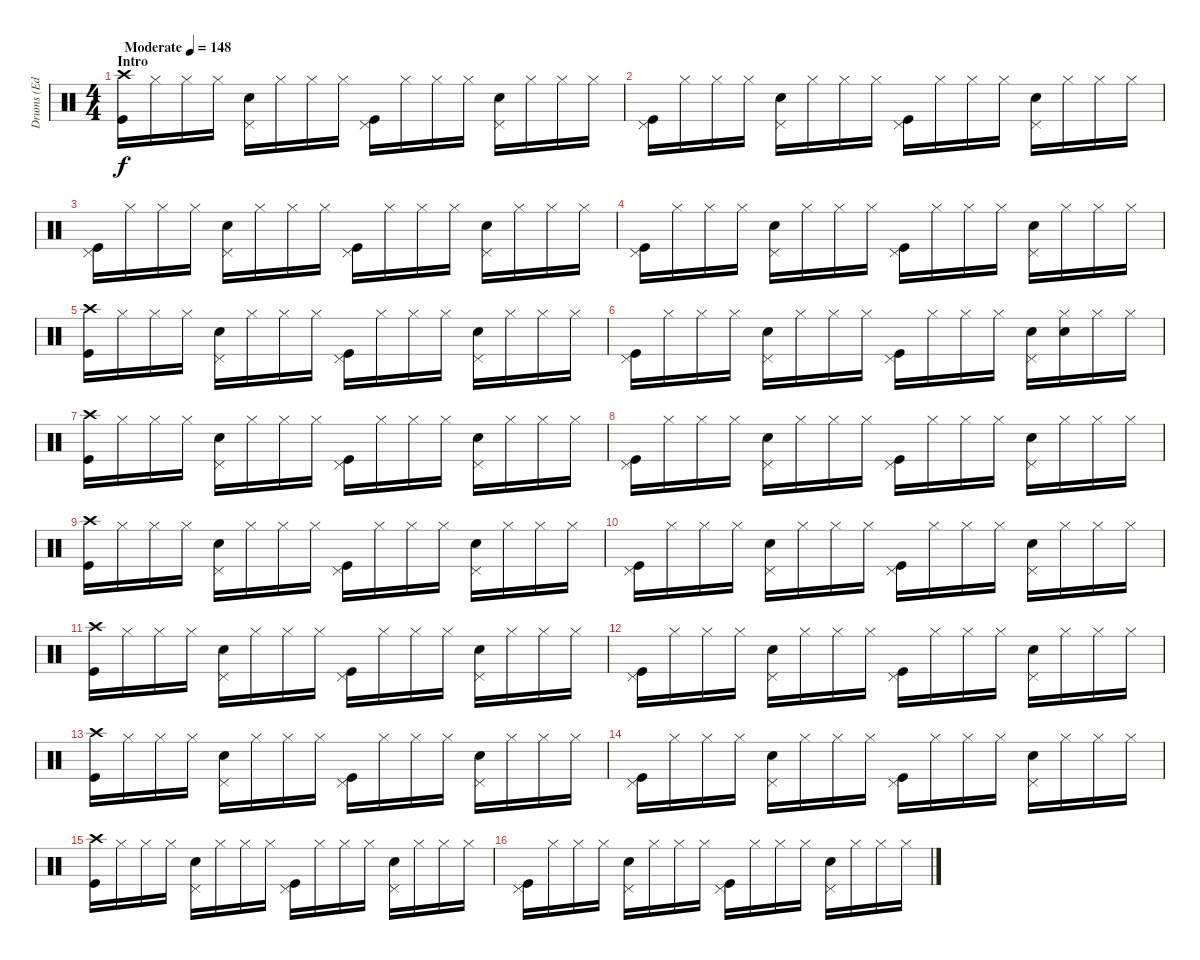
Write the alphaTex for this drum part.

\track ("Drums (Ed Lay)" "Drums (Ed ") {instrument percussion}
\staff {score}
\articulation defaults
\ts (4 4)
\section ("" "Intro ")
\tempo (148 "Moderate")
\clef neutral
\ks c
("Crash high (hit)" "Kick (hit)").16{dy f} "Hi-Hat (closed)".16 "Hi-Hat (closed)".16 "Hi-Hat (closed)".16 ("Pedal Hi-Hat (hit)" "Electric Snare (hit)").16 "Hi-Hat (closed)".16 "Hi-Hat (closed)".16 "Hi-Hat (closed)".16 ("Pedal Hi-Hat (hit)" "Kick (hit)").16 "Hi-Hat (closed)".16 "Hi-Hat (closed)".16 "Hi-Hat (closed)".16 ("Pedal Hi-Hat (hit)" "Electric Snare (hit)").16 "Hi-Hat (closed)".16 "Hi-Hat (closed)".16 "Hi-Hat (closed)".16 |
("Pedal Hi-Hat (hit)" "Kick (hit)").16 "Hi-Hat (closed)".16 "Hi-Hat (closed)".16 "Hi-Hat (closed)".16 ("Pedal Hi-Hat (hit)" "Electric Snare (hit)").16 "Hi-Hat (closed)".16 "Hi-Hat (closed)".16 "Hi-Hat (closed)".16 ("Pedal Hi-Hat (hit)" "Kick (hit)").16 "Hi-Hat (closed)".16 "Hi-Hat (closed)".16 "Hi-Hat (closed)".16 ("Pedal Hi-Hat (hit)" "Electric Snare (hit)").16 "Hi-Hat (closed)".16 "Hi-Hat (closed)".16 "Hi-Hat (closed)".16 |
("Pedal Hi-Hat (hit)" "Kick (hit)").16 "Hi-Hat (closed)".16 "Hi-Hat (closed)".16 "Hi-Hat (closed)".16 ("Pedal Hi-Hat (hit)" "Electric Snare (hit)").16 "Hi-Hat (closed)".16 "Hi-Hat (closed)".16 "Hi-Hat (closed)".16 ("Pedal Hi-Hat (hit)" "Kick (hit)").16 "Hi-Hat (closed)".16 "Hi-Hat (closed)".16 "Hi-Hat (closed)".16 ("Pedal Hi-Hat (hit)" "Electric Snare (hit)").16 "Hi-Hat (closed)".16 "Hi-Hat (closed)".16 "Hi-Hat (closed)".16 |
("Pedal Hi-Hat (hit)" "Kick (hit)").16 "Hi-Hat (closed)".16 "Hi-Hat (closed)".16 "Hi-Hat (closed)".16 ("Pedal Hi-Hat (hit)" "Electric Snare (hit)").16 "Hi-Hat (closed)".16 "Hi-Hat (closed)".16 "Hi-Hat (closed)".16 ("Pedal Hi-Hat (hit)" "Kick (hit)").16 "Hi-Hat (closed)".16 "Hi-Hat (closed)".16 "Hi-Hat (closed)".16 ("Pedal Hi-Hat (hit)" "Electric Snare (hit)").16 "Hi-Hat (closed)".16 "Hi-Hat (closed)".16 "Hi-Hat (closed)".16 |
("Crash high (hit)" "Kick (hit)").16 "Hi-Hat (closed)".16 "Hi-Hat (closed)".16 "Hi-Hat (closed)".16 ("Pedal Hi-Hat (hit)" "Electric Snare (hit)").16 "Hi-Hat (closed)".16 "Hi-Hat (closed)".16 "Hi-Hat (closed)".16 ("Pedal Hi-Hat (hit)" "Kick (hit)").16 "Hi-Hat (closed)".16 "Hi-Hat (closed)".16 "Hi-Hat (closed)".16 ("Pedal Hi-Hat (hit)" "Electric Snare (hit)").16 "Hi-Hat (closed)".16 "Hi-Hat (closed)".16 "Hi-Hat (closed)".16 |
("Pedal Hi-Hat (hit)" "Kick (hit)").16 "Hi-Hat (closed)".16 "Hi-Hat (closed)".16 "Hi-Hat (closed)".16 ("Pedal Hi-Hat (hit)" "Electric Snare (hit)").16 "Hi-Hat (closed)".16 "Hi-Hat (closed)".16 "Hi-Hat (closed)".16 ("Pedal Hi-Hat (hit)" "Kick (hit)").16 "Hi-Hat (closed)".16 "Hi-Hat (closed)".16 "Hi-Hat (closed)".16 ("Pedal Hi-Hat (hit)" "Electric Snare (hit)").16 ("Hi-Hat (closed)" "Electric Snare (hit)").16 "Hi-Hat (closed)".16 "Hi-Hat (closed)".16 |
("Crash high (hit)" "Kick (hit)").16 "Hi-Hat (closed)".16 "Hi-Hat (closed)".16 "Hi-Hat (closed)".16 ("Pedal Hi-Hat (hit)" "Electric Snare (hit)").16 "Hi-Hat (closed)".16 "Hi-Hat (closed)".16 "Hi-Hat (closed)".16 ("Pedal Hi-Hat (hit)" "Kick (hit)").16 "Hi-Hat (closed)".16 "Hi-Hat (closed)".16 "Hi-Hat (closed)".16 ("Pedal Hi-Hat (hit)" "Electric Snare (hit)").16 "Hi-Hat (closed)".16 "Hi-Hat (closed)".16 "Hi-Hat (closed)".16 |
("Pedal Hi-Hat (hit)" "Kick (hit)").16 "Hi-Hat (closed)".16 "Hi-Hat (closed)".16 "Hi-Hat (closed)".16 ("Pedal Hi-Hat (hit)" "Electric Snare (hit)").16 "Hi-Hat (closed)".16 "Hi-Hat (closed)".16 "Hi-Hat (closed)".16 ("Pedal Hi-Hat (hit)" "Kick (hit)").16 "Hi-Hat (closed)".16 "Hi-Hat (closed)".16 "Hi-Hat (closed)".16 ("Pedal Hi-Hat (hit)" "Electric Snare (hit)").16 "Hi-Hat (closed)".16 "Hi-Hat (closed)".16 "Hi-Hat (closed)".16 |
("Crash high (hit)" "Kick (hit)").16 "Hi-Hat (closed)".16 "Hi-Hat (closed)".16 "Hi-Hat (closed)".16 ("Pedal Hi-Hat (hit)" "Electric Snare (hit)").16 "Hi-Hat (closed)".16 "Hi-Hat (closed)".16 "Hi-Hat (closed)".16 ("Pedal Hi-Hat (hit)" "Kick (hit)").16 "Hi-Hat (closed)".16 "Hi-Hat (closed)".16 "Hi-Hat (closed)".16 ("Pedal Hi-Hat (hit)" "Electric Snare (hit)").16 "Hi-Hat (closed)".16 "Hi-Hat (closed)".16 "Hi-Hat (closed)".16 |
("Pedal Hi-Hat (hit)" "Kick (hit)").16 "Hi-Hat (closed)".16 "Hi-Hat (closed)".16 "Hi-Hat (closed)".16 ("Pedal Hi-Hat (hit)" "Electric Snare (hit)").16 "Hi-Hat (closed)".16 "Hi-Hat (closed)".16 "Hi-Hat (closed)".16 ("Pedal Hi-Hat (hit)" "Kick (hit)").16 "Hi-Hat (closed)".16 "Hi-Hat (closed)".16 "Hi-Hat (closed)".16 ("Pedal Hi-Hat (hit)" "Electric Snare (hit)").16 "Hi-Hat (closed)".16 "Hi-Hat (closed)".16 "Hi-Hat (closed)".16 |
("Crash high (hit)" "Kick (hit)").16 "Hi-Hat (closed)".16 "Hi-Hat (closed)".16 "Hi-Hat (closed)".16 ("Pedal Hi-Hat (hit)" "Electric Snare (hit)").16 "Hi-Hat (closed)".16 "Hi-Hat (closed)".16 "Hi-Hat (closed)".16 ("Pedal Hi-Hat (hit)" "Kick (hit)").16 "Hi-Hat (closed)".16 "Hi-Hat (closed)".16 "Hi-Hat (closed)".16 ("Pedal Hi-Hat (hit)" "Electric Snare (hit)").16 "Hi-Hat (closed)".16 "Hi-Hat (closed)".16 "Hi-Hat (closed)".16 |
("Pedal Hi-Hat (hit)" "Kick (hit)").16 "Hi-Hat (closed)".16 "Hi-Hat (closed)".16 "Hi-Hat (closed)".16 ("Pedal Hi-Hat (hit)" "Electric Snare (hit)").16 "Hi-Hat (closed)".16 "Hi-Hat (closed)".16 "Hi-Hat (closed)".16 ("Pedal Hi-Hat (hit)" "Kick (hit)").16 "Hi-Hat (closed)".16 "Hi-Hat (closed)".16 "Hi-Hat (closed)".16 ("Pedal Hi-Hat (hit)" "Electric Snare (hit)").16 "Hi-Hat (closed)".16 "Hi-Hat (closed)".16 "Hi-Hat (closed)".16 |
("Crash high (hit)" "Kick (hit)").16 "Hi-Hat (closed)".16 "Hi-Hat (closed)".16 "Hi-Hat (closed)".16 ("Pedal Hi-Hat (hit)" "Electric Snare (hit)").16 "Hi-Hat (closed)".16 "Hi-Hat (closed)".16 "Hi-Hat (closed)".16 ("Pedal Hi-Hat (hit)" "Kick (hit)").16 "Hi-Hat (closed)".16 "Hi-Hat (closed)".16 "Hi-Hat (closed)".16 ("Pedal Hi-Hat (hit)" "Electric Snare (hit)").16 "Hi-Hat (closed)".16 "Hi-Hat (closed)".16 "Hi-Hat (closed)".16 |
("Pedal Hi-Hat (hit)" "Kick (hit)").16 "Hi-Hat (closed)".16 "Hi-Hat (closed)".16 "Hi-Hat (closed)".16 ("Pedal Hi-Hat (hit)" "Electric Snare (hit)").16 "Hi-Hat (closed)".16 "Hi-Hat (closed)".16 "Hi-Hat (closed)".16 ("Pedal Hi-Hat (hit)" "Kick (hit)").16 "Hi-Hat (closed)".16 "Hi-Hat (closed)".16 "Hi-Hat (closed)".16 ("Pedal Hi-Hat (hit)" "Electric Snare (hit)").16 "Hi-Hat (closed)".16 "Hi-Hat (closed)".16 "Hi-Hat (closed)".16 |
("Crash high (hit)" "Kick (hit)").16 "Hi-Hat (closed)".16 "Hi-Hat (closed)".16 "Hi-Hat (closed)".16 ("Pedal Hi-Hat (hit)" "Electric Snare (hit)").16 "Hi-Hat (closed)".16 "Hi-Hat (closed)".16 "Hi-Hat (closed)".16 ("Pedal Hi-Hat (hit)" "Kick (hit)").16 "Hi-Hat (closed)".16 "Hi-Hat (closed)".16 "Hi-Hat (closed)".16 ("Pedal Hi-Hat (hit)" "Electric Snare (hit)").16 "Hi-Hat (closed)".16 "Hi-Hat (closed)".16 "Hi-Hat (closed)".16 |
("Pedal Hi-Hat (hit)" "Kick (hit)").16 "Hi-Hat (closed)".16 "Hi-Hat (closed)".16 "Hi-Hat (closed)".16 ("Pedal Hi-Hat (hit)" "Electric Snare (hit)").16 "Hi-Hat (closed)".16 "Hi-Hat (closed)".16 "Hi-Hat (closed)".16 ("Pedal Hi-Hat (hit)" "Kick (hit)").16 "Hi-Hat (closed)".16 "Hi-Hat (closed)".16 "Hi-Hat (closed)".16 ("Pedal Hi-Hat (hit)" "Electric Snare (hit)").16 "Hi-Hat (closed)".16 "Hi-Hat (closed)".16 "Hi-Hat (closed)".16
